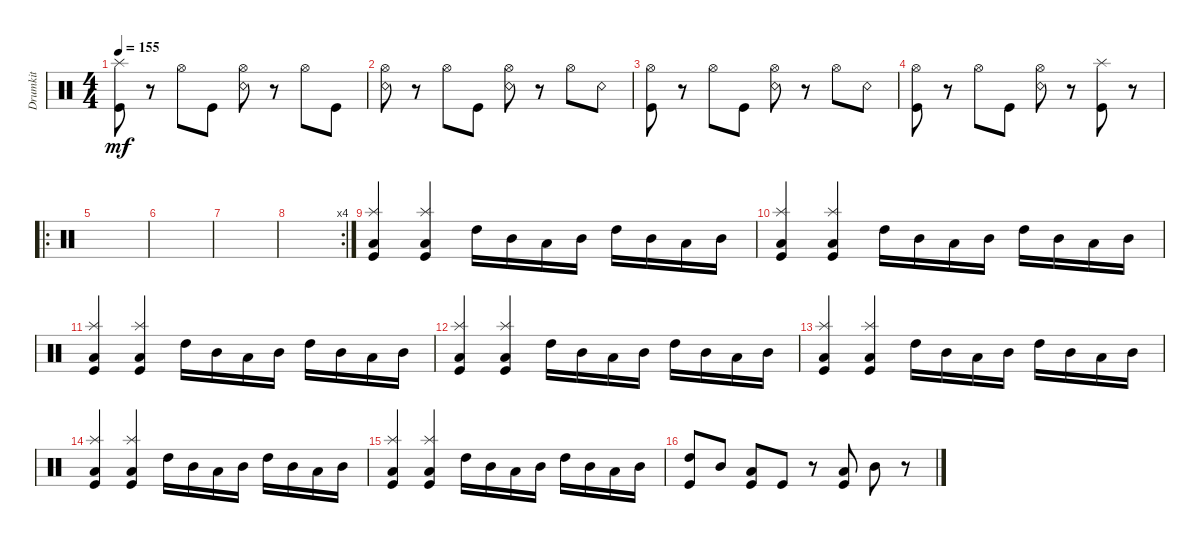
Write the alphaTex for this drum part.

\track ("Drumkit" "Drumkit") {instrument percussion}
\staff {score}
\articulation defaults
\ts (4 4)
\tempo 155
\clef neutral
\ks c
("Kick (hit)" "Splash (hit)").8{dy mf} r.8 "Hi-Hat (open)".8 "Kick (hit)".8 ("Snare (rim shot)" "Hi-Hat (open)").8 r.8 "Hi-Hat (open)".8 "Kick (hit)".8 |
("Snare (rim shot)" "Hi-Hat (open)").8 r.8 "Hi-Hat (open)".8 "Kick (hit)".8 ("Hi-Hat (open)" "Snare (rim shot)").8 r.8 "Hi-Hat (open)".8 "Snare (rim shot)".8 |
("Hi-Hat (open)" "Kick (hit)").8 r.8 "Hi-Hat (open)".8 "Kick (hit)".8 ("Hi-Hat (open)" "Snare (rim shot)").8 r.8 "Hi-Hat (open)".8 "Snare (rim shot)".8 |
("Kick (hit)" "Hi-Hat (open)").8 r.8 "Hi-Hat (open)".8 "Kick (hit)".8 ("Snare (rim shot)" "Hi-Hat (open)").8 r.8 ("Kick (hit)" "Splash (hit)").8 r.8 |
\ro
|
|
|
\rc 4
|
("Kick (hit)" "Low Tom (hit)" "Splash (hit)").4 ("Kick (hit)" "Low Tom (hit)" "Splash (hit)").4 "High Tom (hit)".16 "Mid Tom (hit)".16 "Low Tom (hit)".16 "Mid Tom (hit)".16 "High Tom (hit)".16 "Mid Tom (hit)".16 "Low Tom (hit)".16 "Mid Tom (hit)".16 |
("Kick (hit)" "Low Tom (hit)" "Splash (hit)").4 ("Kick (hit)" "Low Tom (hit)" "Splash (hit)").4 "High Tom (hit)".16 "Mid Tom (hit)".16 "Low Tom (hit)".16 "Mid Tom (hit)".16 "High Tom (hit)".16 "Mid Tom (hit)".16 "Low Tom (hit)".16 "Mid Tom (hit)".16 |
("Kick (hit)" "Low Tom (hit)" "Splash (hit)").4 ("Kick (hit)" "Low Tom (hit)" "Splash (hit)").4 "High Tom (hit)".16 "Mid Tom (hit)".16 "Low Tom (hit)".16 "Mid Tom (hit)".16 "High Tom (hit)".16 "Mid Tom (hit)".16 "Low Tom (hit)".16 "Mid Tom (hit)".16 |
("Kick (hit)" "Low Tom (hit)" "Splash (hit)").4 ("Kick (hit)" "Low Tom (hit)" "Splash (hit)").4 "High Tom (hit)".16 "Mid Tom (hit)".16 "Low Tom (hit)".16 "Mid Tom (hit)".16 "High Tom (hit)".16 "Mid Tom (hit)".16 "Low Tom (hit)".16 "Mid Tom (hit)".16 |
("Kick (hit)" "Low Tom (hit)" "Splash (hit)").4 ("Kick (hit)" "Low Tom (hit)" "Splash (hit)").4 "High Tom (hit)".16 "Mid Tom (hit)".16 "Low Tom (hit)".16 "Mid Tom (hit)".16 "High Tom (hit)".16 "Mid Tom (hit)".16 "Low Tom (hit)".16 "Mid Tom (hit)".16 |
("Kick (hit)" "Low Tom (hit)" "Splash (hit)").4 ("Kick (hit)" "Low Tom (hit)" "Splash (hit)").4 "High Tom (hit)".16 "Mid Tom (hit)".16 "Low Tom (hit)".16 "Mid Tom (hit)".16 "High Tom (hit)".16 "Mid Tom (hit)".16 "Low Tom (hit)".16 "Mid Tom (hit)".16 |
("Kick (hit)" "Low Tom (hit)" "Splash (hit)").4 ("Kick (hit)" "Low Tom (hit)" "Splash (hit)").4 "High Tom (hit)".16 "Mid Tom (hit)".16 "Low Tom (hit)".16 "Mid Tom (hit)".16 "High Tom (hit)".16 "Mid Tom (hit)".16 "Low Tom (hit)".16 "Mid Tom (hit)".16 |
("High Tom (hit)" "Kick (hit)").8 "Mid Tom (hit)".8 ("Low Tom (hit)" "Kick (hit)").8 "Kick (hit)".8 r.8 ("Kick (hit)" "Low Tom (hit)").8 "Mid Tom (hit)".8 r.8
